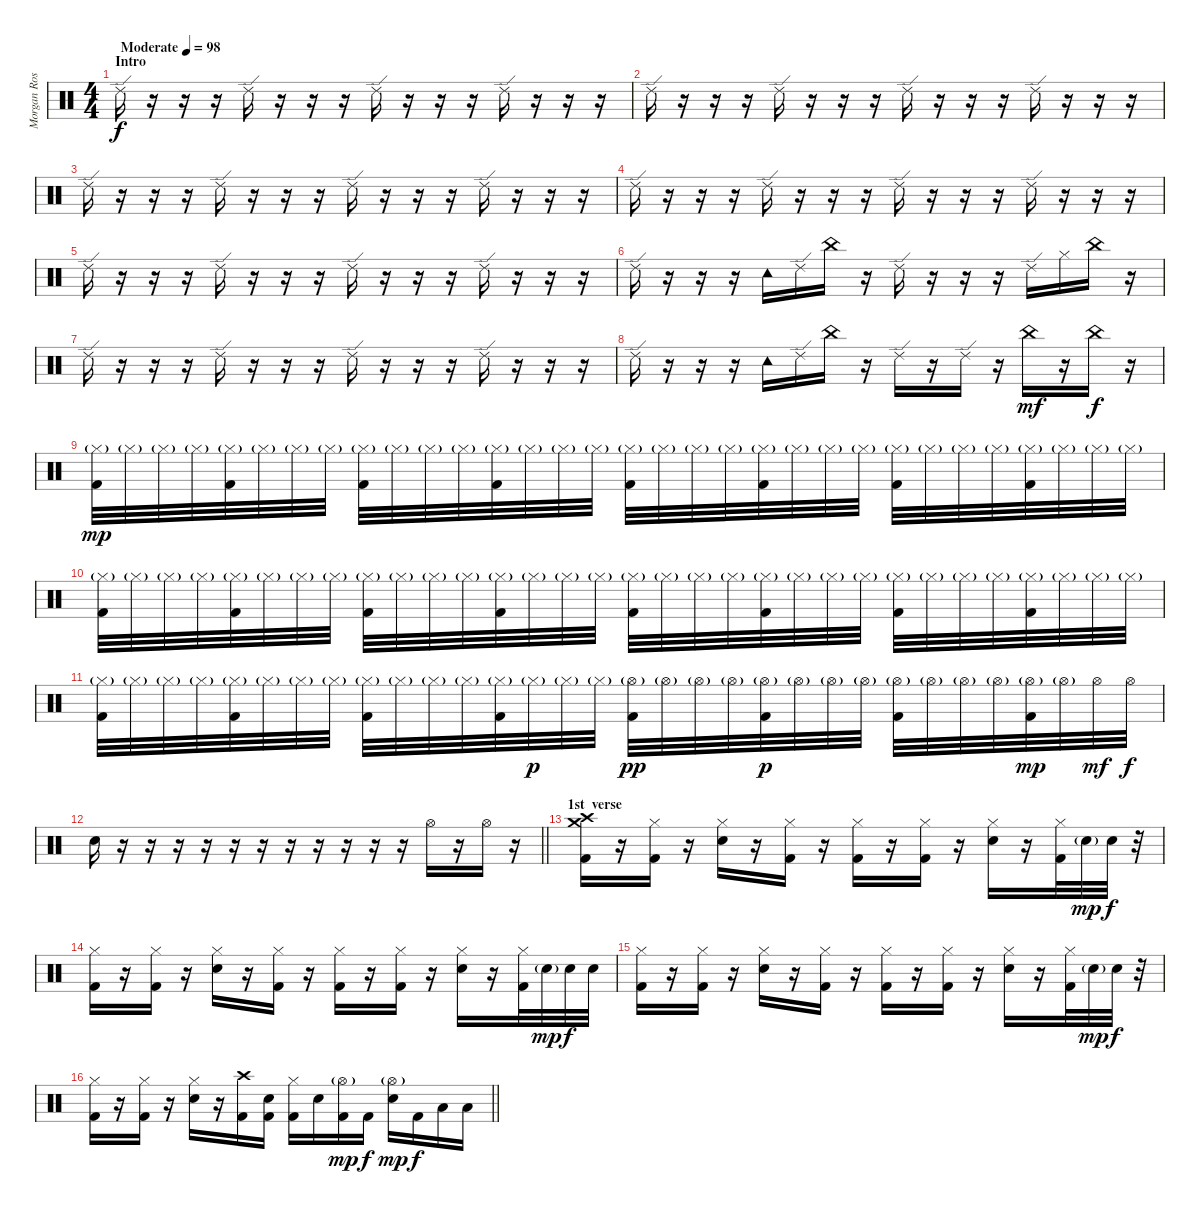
\track ("Morgan Rose" "Morgan Ros") {instrument percussion}
\staff {score}
\articulation defaults
\ts (4 4)
\section ("" "Intro")
\tempo (98 "Moderate")
\clef neutral
\ks c "Ride (edge) 2".16{dy f}
r.16 r.16 r.16 "Ride (edge) 2".16 r.16 r.16 r.16 "Ride (edge) 2".16 r.16 r.16 r.16 "Ride (edge) 2".16 r.16 r.16 r.16 |
"Ride (edge) 2".16 r.16 r.16 r.16 "Ride (edge) 2".16 r.16 r.16 r.16 "Ride (edge) 2".16 r.16 r.16 r.16 "Ride (edge) 2".16 r.16 r.16 r.16 |
"Ride (edge) 2".16 r.16 r.16 r.16 "Ride (edge) 2".16 r.16 r.16 r.16 "Ride (edge) 2".16 r.16 r.16 r.16 "Ride (edge) 2".16 r.16 r.16 r.16 |
"Ride (edge) 2".16 r.16 r.16 r.16 "Ride (edge) 2".16 r.16 r.16 r.16 "Ride (edge) 2".16 r.16 r.16 r.16 "Ride (edge) 2".16 r.16 r.16 r.16 |
"Ride (edge) 2".16 r.16 r.16 r.16 "Ride (edge) 2".16 r.16 r.16 r.16 "Ride (edge) 2".16 r.16 r.16 r.16 "Ride (edge) 2".16 r.16 r.16 r.16 |
"Ride (edge) 2".16 r.16 r.16 r.16 "Tambourine (hit)".16 "Ride (edge) 2".16 "China (hit)".16 r.16 "Ride (edge) 2".16 r.16 r.16 r.16 "Ride (edge) 2".16 "Hi-Hat (closed)".16 "China (hit)".16 r.16 |
"Ride (edge) 2".16 r.16 r.16 r.16 "Ride (edge) 2".16 r.16 r.16 r.16 "Ride (edge) 2".16 r.16 r.16 r.16 "Ride (edge) 2".16 r.16 r.16 r.16 |
"Ride (edge) 2".16 r.16 r.16 r.16 "Tambourine (hit)".16 "Ride (edge) 2".16 "China (hit)".16 r.16 "Ride (edge) 2".16 r.16 "Ride (edge) 2".16 r.16 "China (hit)".16{dy mf} r.16 "China (hit)".16{dy f} r.16 |
("Hi-Hat (closed)"{g} "Kick (hit) 2").32{dy mp} "Hi-Hat (closed)"{g}.32 "Hi-Hat (closed)"{g}.32 "Hi-Hat (closed)"{g}.32 ("Hi-Hat (closed)"{g} "Kick (hit) 2").32 "Hi-Hat (closed)"{g}.32 "Hi-Hat (closed)"{g}.32 "Hi-Hat (closed)"{g}.32 ("Hi-Hat (closed)"{g} "Kick (hit) 2").32 "Hi-Hat (closed)"{g}.32 "Hi-Hat (closed)"{g}.32 "Hi-Hat (closed)"{g}.32 ("Hi-Hat (closed)"{g} "Kick (hit) 2").32 "Hi-Hat (closed)"{g}.32 "Hi-Hat (closed)"{g}.32 "Hi-Hat (closed)"{g}.32 ("Hi-Hat (closed)"{g} "Kick (hit) 2").32 "Hi-Hat (closed)"{g}.32 "Hi-Hat (closed)"{g}.32 "Hi-Hat (closed)"{g}.32 ("Hi-Hat (closed)"{g} "Kick (hit) 2").32 "Hi-Hat (closed)"{g}.32 "Hi-Hat (closed)"{g}.32 "Hi-Hat (closed)"{g}.32 ("Hi-Hat (closed)"{g} "Kick (hit) 2").32 "Hi-Hat (closed)"{g}.32 "Hi-Hat (closed)"{g}.32 "Hi-Hat (closed)"{g}.32 ("Hi-Hat (closed)"{g} "Kick (hit) 2").32 "Hi-Hat (closed)"{g}.32 "Hi-Hat (closed)"{g}.32 "Hi-Hat (closed)"{g}.32 |
("Hi-Hat (closed)"{g} "Kick (hit) 2").32 "Hi-Hat (closed)"{g}.32 "Hi-Hat (closed)"{g}.32 "Hi-Hat (closed)"{g}.32 ("Hi-Hat (closed)"{g} "Kick (hit) 2").32 "Hi-Hat (closed)"{g}.32 "Hi-Hat (closed)"{g}.32 "Hi-Hat (closed)"{g}.32 ("Hi-Hat (closed)"{g} "Kick (hit) 2").32 "Hi-Hat (closed)"{g}.32 "Hi-Hat (closed)"{g}.32 "Hi-Hat (closed)"{g}.32 ("Hi-Hat (closed)"{g} "Kick (hit) 2").32 "Hi-Hat (closed)"{g}.32 "Hi-Hat (closed)"{g}.32 "Hi-Hat (closed)"{g}.32 ("Hi-Hat (closed)"{g} "Kick (hit) 2").32 "Hi-Hat (closed)"{g}.32 "Hi-Hat (closed)"{g}.32 "Hi-Hat (closed)"{g}.32 ("Hi-Hat (closed)"{g} "Kick (hit) 2").32 "Hi-Hat (closed)"{g}.32 "Hi-Hat (closed)"{g}.32 "Hi-Hat (closed)"{g}.32 ("Hi-Hat (closed)"{g} "Kick (hit) 2").32 "Hi-Hat (closed)"{g}.32 "Hi-Hat (closed)"{g}.32 "Hi-Hat (closed)"{g}.32 ("Hi-Hat (closed)"{g} "Kick (hit) 2").32 "Hi-Hat (closed)"{g}.32 "Hi-Hat (closed)"{g}.32 "Hi-Hat (closed)"{g}.32 |
("Hi-Hat (closed)"{g} "Kick (hit) 2").32 "Hi-Hat (closed)"{g}.32 "Hi-Hat (closed)"{g}.32 "Hi-Hat (closed)"{g}.32 ("Hi-Hat (closed)"{g} "Kick (hit) 2").32 "Hi-Hat (closed)"{g}.32 "Hi-Hat (closed)"{g}.32 "Hi-Hat (closed)"{g}.32 ("Hi-Hat (closed)"{g} "Kick (hit) 2").32 "Hi-Hat (closed)"{g}.32 "Hi-Hat (closed)"{g}.32 "Hi-Hat (closed)"{g}.32 ("Hi-Hat (closed)"{g} "Kick (hit) 2").32 "Hi-Hat (closed)"{g}.32{dy p} "Hi-Hat (closed)"{g}.32 "Hi-Hat (closed)"{g}.32 ("Hi-Hat (open)"{g} "Kick (hit) 2").32{dy pp} "Hi-Hat (open)"{g}.32 "Hi-Hat (open)"{g}.32 "Hi-Hat (open)"{g}.32 ("Hi-Hat (open)"{g} "Kick (hit) 2").32{dy p} "Hi-Hat (open)"{g}.32 "Hi-Hat (open)"{g}.32 "Hi-Hat (open)"{g}.32 ("Hi-Hat (open)"{g} "Kick (hit) 2").32 "Hi-Hat (open)"{g}.32 "Hi-Hat (open)"{g}.32 "Hi-Hat (open)"{g}.32 ("Hi-Hat (open)"{g} "Kick (hit) 2").32{dy mp} "Hi-Hat (open)"{g}.32 "Hi-Hat (open)".32{dy mf} "Hi-Hat (open)".32{dy f} |
\barLineRight lightlight "Snare (hit) 2".16
r.16 r.16 r.16 r.16 r.16 r.16 r.16 r.16 r.16 r.16 r.16 "Hi-Hat (open)".16 r.16 "Hi-Hat (open)".16 r.16 |
\section ("" "1st  verse")
("Crash medium (hit)" "Crash high (hit)" "Kick (hit) 2").16 r.16 ("Hi-Hat (closed)" "Kick (hit) 2").16 r.16 ("Hi-Hat (closed)" "Snare (hit) 2").16 r.16 ("Hi-Hat (closed)" "Kick (hit) 2").16 r.16 ("Hi-Hat (closed)" "Kick (hit) 2").16 r.16 ("Hi-Hat (closed)" "Kick (hit) 2").16 r.16 ("Hi-Hat (closed)" "Snare (hit) 2").16 r.16 ("Hi-Hat (closed)" "Kick (hit) 2").32 "Snare (hit) 2"{g}.32{dy mp} "Snare (hit) 2".32{dy f} r.32 |
("Hi-Hat (closed)" "Kick (hit) 2").16 r.16 ("Hi-Hat (closed)" "Kick (hit) 2").16 r.16 ("Hi-Hat (closed)" "Snare (hit) 2").16 r.16 ("Hi-Hat (closed)" "Kick (hit) 2").16 r.16 ("Hi-Hat (closed)" "Kick (hit) 2").16 r.16 ("Hi-Hat (closed)" "Kick (hit) 2").16 r.16 ("Hi-Hat (closed)" "Snare (hit) 2").16 r.16 ("Hi-Hat (closed)" "Kick (hit) 2").32 "Snare (hit) 2"{g}.32{dy mp} "Snare (hit) 2".32{dy f} "Snare (hit) 2".32 |
("Hi-Hat (closed)" "Kick (hit) 2").16 r.16 ("Hi-Hat (closed)" "Kick (hit) 2").16 r.16 ("Hi-Hat (closed)" "Snare (hit) 2").16 r.16 ("Hi-Hat (closed)" "Kick (hit) 2").16 r.16 ("Hi-Hat (closed)" "Kick (hit) 2").16 r.16 ("Hi-Hat (closed)" "Kick (hit) 2").16 r.16 ("Hi-Hat (closed)" "Snare (hit) 2").16 r.16 ("Hi-Hat (closed)" "Kick (hit) 2").32 "Snare (hit) 2"{g}.32{dy mp} "Snare (hit) 2".32{dy f} r.32 |
\barLineRight lightlight
("Hi-Hat (closed)" "Kick (hit) 2").16 r.16 ("Hi-Hat (closed)" "Kick (hit) 2").16 r.16 ("Hi-Hat (closed)" "Snare (hit) 2").16 r.16 ("Crash high (hit)" "Kick (hit) 2").16 ("Snare (hit) 2" "Kick (hit) 2").16 ("Hi-Hat (closed)" "Kick (hit) 2").16 "Snare (hit) 2".16 ("Hi-Hat (open)"{g} "Kick (hit) 2").16{dy mp} "Kick (hit) 2".16{dy f} ("Hi-Hat (open)"{g} "Snare (hit) 2").16{dy mp} "Kick (hit) 2".16{dy f} "Low Tom (hit)".16 "Low Tom (hit)".16
